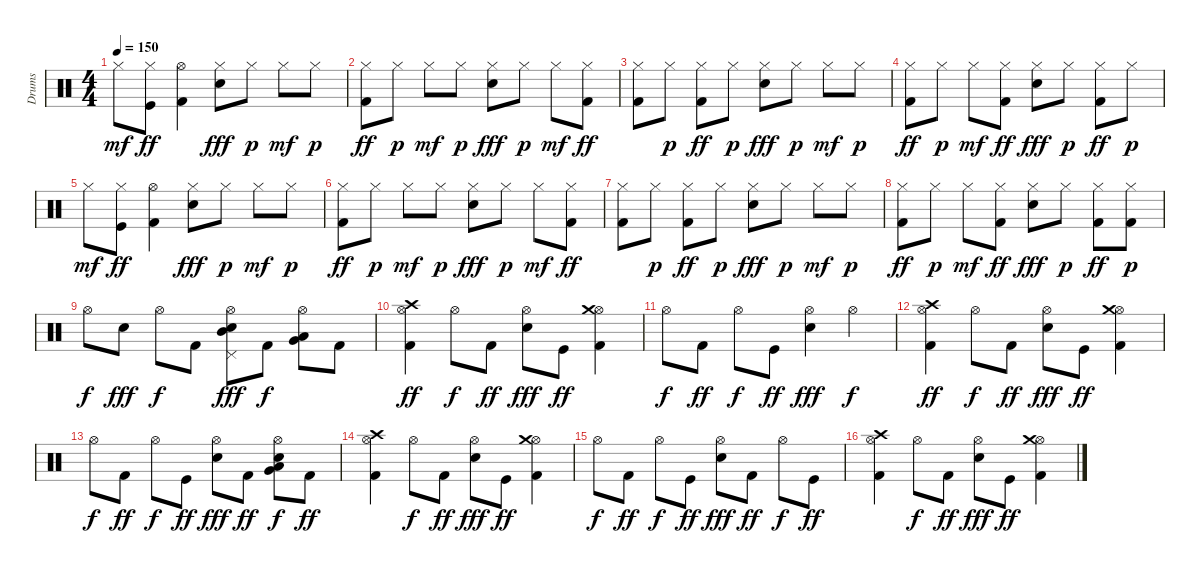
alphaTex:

\track ("Drums" "Drums") {instrument percussion}
\staff {score}
\articulation defaults
\ts (4 4)
\tempo 150
\clef neutral
\ks c "Hi-Hat (closed)".8{dy mf}
("Hi-Hat (closed)" "Kick (hit)").8{dy ff} ("Hi-Hat (open)" "Kick (hit) 2").4 ("Hi-Hat (closed)" "Electric Snare (hit)").8{dy fff} "Hi-Hat (closed)".8{dy p} "Hi-Hat (closed)".8{dy mf} "Hi-Hat (closed)".8{dy p} |
("Hi-Hat (closed)" "Kick (hit) 2").8{dy ff} "Hi-Hat (closed)".8{dy p} "Hi-Hat (closed)".8{dy mf} "Hi-Hat (closed)".8{dy p} ("Hi-Hat (closed)" "Electric Snare (hit)").8{dy fff} "Hi-Hat (closed)".8{dy p} "Hi-Hat (closed)".8{dy mf} ("Hi-Hat (closed)" "Kick (hit) 2").8{dy ff} |
("Hi-Hat (closed)" "Kick (hit) 2").8 "Hi-Hat (closed)".8{dy p} ("Hi-Hat (closed)" "Kick (hit) 2").8{dy ff} "Hi-Hat (closed)".8{dy p} ("Hi-Hat (closed)" "Electric Snare (hit)").8{dy fff} "Hi-Hat (closed)".8{dy p} "Hi-Hat (closed)".8{dy mf} "Hi-Hat (closed)".8{dy p} |
("Hi-Hat (closed)" "Kick (hit) 2").8{dy ff} "Hi-Hat (closed)".8{dy p} "Hi-Hat (closed)".8{dy mf} ("Hi-Hat (closed)" "Kick (hit) 2").8{dy ff} ("Hi-Hat (closed)" "Electric Snare (hit)").8{dy fff} "Hi-Hat (closed)".8{dy p} ("Hi-Hat (closed)" "Kick (hit) 2").8{dy ff} "Hi-Hat (closed)".8{dy p} |
"Hi-Hat (closed)".8{dy mf} ("Hi-Hat (closed)" "Kick (hit)").8{dy ff} ("Hi-Hat (open)" "Kick (hit) 2").4 ("Hi-Hat (closed)" "Electric Snare (hit)").8{dy fff} "Hi-Hat (closed)".8{dy p} "Hi-Hat (closed)".8{dy mf} "Hi-Hat (closed)".8{dy p} |
("Hi-Hat (closed)" "Kick (hit) 2").8{dy ff} "Hi-Hat (closed)".8{dy p} "Hi-Hat (closed)".8{dy mf} "Hi-Hat (closed)".8{dy p} ("Hi-Hat (closed)" "Electric Snare (hit)").8{dy fff} "Hi-Hat (closed)".8{dy p} "Hi-Hat (closed)".8{dy mf} ("Hi-Hat (closed)" "Kick (hit) 2").8{dy ff} |
("Hi-Hat (closed)" "Kick (hit) 2").8 "Hi-Hat (closed)".8{dy p} ("Hi-Hat (closed)" "Kick (hit) 2").8{dy ff} "Hi-Hat (closed)".8{dy p} ("Hi-Hat (closed)" "Electric Snare (hit)").8{dy fff} "Hi-Hat (closed)".8{dy p} "Hi-Hat (closed)".8{dy mf} "Hi-Hat (closed)".8{dy p} |
("Hi-Hat (closed)" "Kick (hit) 2").8{dy ff} "Hi-Hat (closed)".8{dy p} "Hi-Hat (closed)".8{dy mf} ("Hi-Hat (closed)" "Kick (hit) 2").8{dy ff} ("Hi-Hat (closed)" "Electric Snare (hit)").8{dy fff} "Hi-Hat (closed)".8{dy p} ("Hi-Hat (closed)" "Kick (hit) 2").8{dy ff} ("Hi-Hat (closed)" "Kick (hit) 2").8{dy p} |
"Hi-Hat (open)".8{dy f} "Electric Snare (hit)".8{dy fff} "Hi-Hat (open)".8{dy f} "Kick (hit) 2".8 ("Hi-Hat (open)" "Pedal Hi-Hat (hit)" "Mid Tom (hit)" "Electric Snare (hit)").8{dy fff} "Kick (hit) 2".8{dy f} ("Hi-Hat (open)" "Very Low Tom (hit)" "Low Floor Tom (hit)").8 "Kick (hit) 2".8 |
("Crash high (hit)" "Hi-Hat (open)" "Kick (hit) 2").4{dy ff} "Hi-Hat (open)".8{dy f} "Kick (hit) 2".8{dy ff} ("Hi-Hat (open)" "Electric Snare (hit)").8{dy fff} "Kick (hit)".8{dy ff} ("Hi-Hat (open)" "Crash medium (hit)" "Kick (hit) 2").4 |
"Hi-Hat (open)".8{dy f} "Kick (hit) 2".8{dy ff} "Hi-Hat (open)".8{dy f} "Kick (hit)".8{dy ff} ("Hi-Hat (open)" "Electric Snare (hit)").4{dy fff} "Hi-Hat (open)".4{dy f} |
("Hi-Hat (open)" "Crash high (hit)" "Kick (hit) 2").4{dy ff} "Hi-Hat (open)".8{dy f} "Kick (hit) 2".8{dy ff} ("Hi-Hat (open)" "Electric Snare (hit)").8{dy fff} "Kick (hit)".8{dy ff} ("Hi-Hat (open)" "Crash medium (hit)" "Kick (hit) 2").4 |
"Hi-Hat (open)".8{dy f} "Kick (hit) 2".8{dy ff} "Hi-Hat (open)".8{dy f} "Kick (hit)".8{dy ff} ("Hi-Hat (open)" "Electric Snare (hit)").8{dy fff} "Kick (hit) 2".8{dy ff} ("Hi-Hat (open)" "Electric Snare (hit)" "Low Tom (hit)" "Very Low Tom (hit)").8{dy f} "Kick (hit) 2".8{dy ff} |
("Hi-Hat (open)" "Crash high (hit)" "Kick (hit) 2").4 "Hi-Hat (open)".8{dy f} "Kick (hit) 2".8{dy ff} ("Hi-Hat (open)" "Electric Snare (hit)").8{dy fff} "Kick (hit)".8{dy ff} ("Hi-Hat (open)" "Crash medium (hit)" "Kick (hit) 2").4 |
"Hi-Hat (open)".8{dy f} "Kick (hit) 2".8{dy ff} "Hi-Hat (open)".8{dy f} "Kick (hit)".8{dy ff} ("Hi-Hat (open)" "Electric Snare (hit)").8{dy fff} "Kick (hit) 2".8{dy ff} "Hi-Hat (open)".8{dy f} "Kick (hit)".8{dy ff} |
("Hi-Hat (open)" "Crash high (hit)" "Kick (hit) 2").4 "Hi-Hat (open)".8{dy f} "Kick (hit) 2".8{dy ff} ("Hi-Hat (open)" "Electric Snare (hit)").8{dy fff} "Kick (hit)".8{dy ff} ("Hi-Hat (open)" "Crash medium (hit)" "Kick (hit) 2").4
